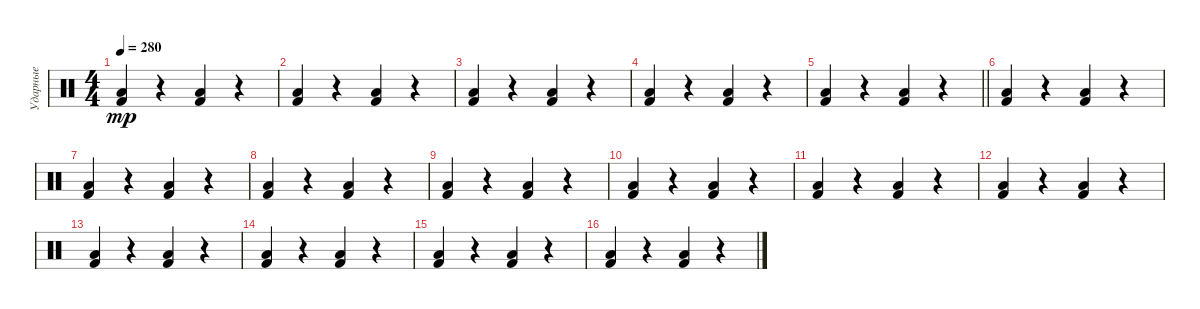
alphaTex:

\track ("Ударные" "Ударные") {instrument percussion}
\staff {score}
\articulation defaults
\ts (4 4)
\tempo 280
\clef neutral
\ks c
("Kick (hit) 2" "Low Tom (hit)").4{dy mp} r.4 ("Kick (hit) 2" "Low Tom (hit)").4 r.4 |
("Kick (hit) 2" "Low Tom (hit)").4 r.4 ("Kick (hit) 2" "Low Tom (hit)").4 r.4 |
("Kick (hit) 2" "Low Tom (hit)").4 r.4 ("Kick (hit) 2" "Low Tom (hit)").4 r.4 |
("Kick (hit) 2" "Low Tom (hit)").4 r.4 ("Kick (hit) 2" "Low Tom (hit)").4 r.4 |
\barLineRight lightlight
("Kick (hit) 2" "Low Tom (hit)").4 r.4 ("Kick (hit) 2" "Low Tom (hit)").4 r.4 |
("Kick (hit) 2" "Low Tom (hit)").4 r.4 ("Kick (hit) 2" "Low Tom (hit)").4 r.4 |
("Kick (hit) 2" "Low Tom (hit)").4 r.4 ("Kick (hit) 2" "Low Tom (hit)").4 r.4 |
("Kick (hit) 2" "Low Tom (hit)").4 r.4 ("Kick (hit) 2" "Low Tom (hit)").4 r.4 |
("Kick (hit) 2" "Low Tom (hit)").4 r.4 ("Kick (hit) 2" "Low Tom (hit)").4 r.4 |
("Kick (hit) 2" "Low Tom (hit)").4 r.4 ("Kick (hit) 2" "Low Tom (hit)").4 r.4 |
("Kick (hit) 2" "Low Tom (hit)").4 r.4 ("Kick (hit) 2" "Low Tom (hit)").4 r.4 |
("Kick (hit) 2" "Low Tom (hit)").4 r.4 ("Kick (hit) 2" "Low Tom (hit)").4 r.4 |
("Kick (hit) 2" "Low Tom (hit)").4 r.4 ("Kick (hit) 2" "Low Tom (hit)").4 r.4 |
("Kick (hit) 2" "Low Tom (hit)").4 r.4 ("Kick (hit) 2" "Low Tom (hit)").4 r.4 |
("Kick (hit) 2" "Low Tom (hit)").4 r.4 ("Kick (hit) 2" "Low Tom (hit)").4 r.4 |
("Kick (hit) 2" "Low Tom (hit)").4 r.4 ("Kick (hit) 2" "Low Tom (hit)").4 r.4
